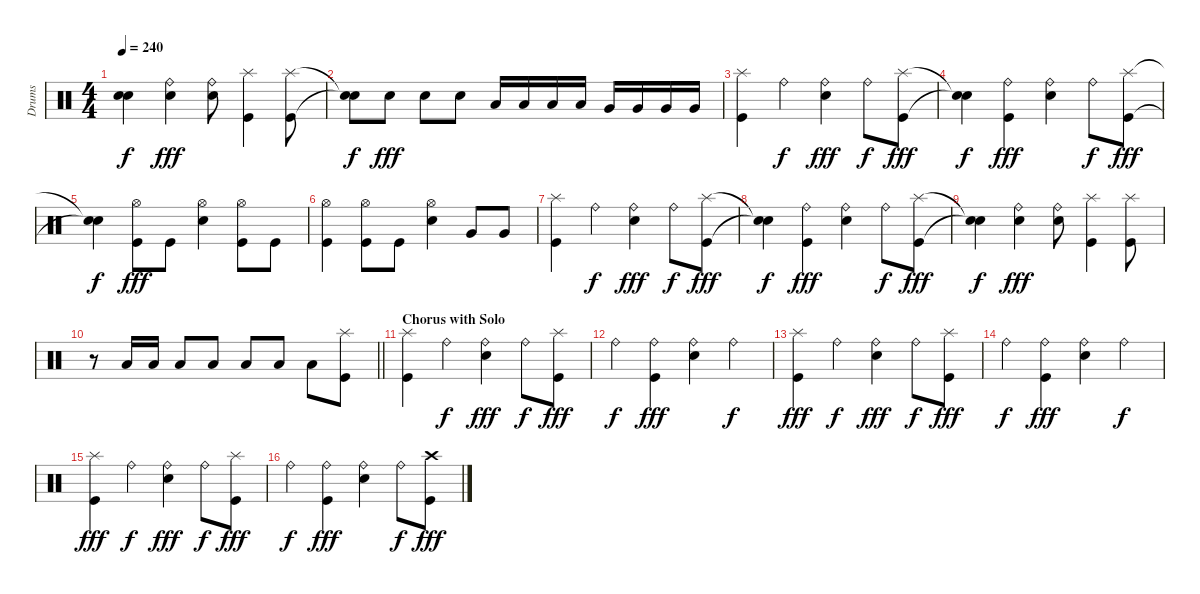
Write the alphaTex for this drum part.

\track ("Drums" "Drums") {instrument percussion}
\staff {score}
\articulation defaults
\ts (4 4)
\tempo 240
\clef neutral
\ks c
("Snare (hit)"{t} "Snare (hit)"{t}).4{dy f} ("Electric Snare (hit)" "Ride (bell)").4{dy fff} ("Electric Snare (hit)" "Ride (bell)").8 ("Kick (hit)" "Splash (hit)").4 ("Kick (hit)" "Splash (hit)").8 |
("Snare (hit)"{t} "Snare (hit)"{t}).8{dy f} "Electric Snare (hit)".8{dy fff} "Electric Snare (hit)".8 "Electric Snare (hit)".8 "Low Tom (hit)".16 "Low Tom (hit)".16 "Low Tom (hit)".16 "Low Tom (hit)".16 "Very Low Tom (hit)".16 "Very Low Tom (hit)".16 "Very Low Tom (hit)".16 "Very Low Tom (hit)".16 |
("Kick (hit)" "Splash (hit)").4 "Ride (bell)".4{dy f} ("Electric Snare (hit)" "Ride (bell)").4{dy fff} "Ride (bell)".8{dy f} ("Kick (hit)" "Splash (hit)").8{dy fff} |
("Snare (hit)"{t} "Snare (hit)"{t}).4{dy f} ("Kick (hit)" "Ride (bell)").4{dy fff} ("Electric Snare (hit)" "Ride (bell)").4 "Ride (bell)".8{dy f} ("Kick (hit)" "Splash (hit)").8{dy fff} |
("Snare (hit)"{t} "Snare (hit)"{t}).4{dy f} ("Kick (hit)" "Hi-Hat (open)").8{dy fff} "Kick (hit)".8 ("Electric Snare (hit)" "Hi-Hat (open)").4 ("Kick (hit)" "Hi-Hat (open)").8 "Kick (hit)".8 |
("Kick (hit)" "Hi-Hat (open)").4 ("Kick (hit)" "Hi-Hat (open)").8 "Kick (hit)".8 ("Electric Snare (hit)" "Hi-Hat (open)").4 "Very Low Tom (hit)".8 "Very Low Tom (hit)".8 |
("Kick (hit)" "Splash (hit)").4 "Ride (bell)".4{dy f} ("Electric Snare (hit)" "Ride (bell)").4{dy fff} "Ride (bell)".8{dy f} ("Kick (hit)" "Splash (hit)").8{dy fff} |
("Snare (hit)"{t} "Snare (hit)"{t}).4{dy f} ("Kick (hit)" "Ride (bell)").4{dy fff} ("Electric Snare (hit)" "Ride (bell)").4 "Ride (bell)".8{dy f} ("Kick (hit)" "Splash (hit)").8{dy fff} |
("Snare (hit)"{t} "Snare (hit)"{t}).4{dy f} ("Electric Snare (hit)" "Ride (bell)").4{dy fff} ("Electric Snare (hit)" "Ride (bell)").8 ("Kick (hit)" "Splash (hit)").4 ("Kick (hit)" "Splash (hit)").8 |
\barLineRight lightlight
r.8 "Low Tom (hit)".16 "Low Tom (hit)".16 "Low Tom (hit)".8 "Low Tom (hit)".8 "Low Tom (hit)".8 "Low Floor Tom (hit)".8 "Low Floor Tom (hit)".8 ("Kick (hit)" "Splash (hit)").8 |
\section ("" "Chorus with Solo")
("Kick (hit)" "Splash (hit)").4 "Ride (bell)".4{dy f} ("Electric Snare (hit)" "Ride (bell)").4{dy fff} "Ride (bell)".8{dy f} ("Kick (hit)" "Splash (hit)").8{dy fff} |
"Ride (bell)".4{dy f} ("Kick (hit)" "Ride (bell)").4{dy fff} ("Electric Snare (hit)" "Ride (bell)").4 "Ride (bell)".4{dy f} |
("Kick (hit)" "Splash (hit)").4{dy fff} "Ride (bell)".4{dy f} ("Electric Snare (hit)" "Ride (bell)").4{dy fff} "Ride (bell)".8{dy f} ("Kick (hit)" "Splash (hit)").8{dy fff} |
"Ride (bell)".4{dy f} ("Kick (hit)" "Ride (bell)").4{dy fff} ("Electric Snare (hit)" "Ride (bell)").4 "Ride (bell)".4{dy f} |
("Kick (hit)" "Splash (hit)").4{dy fff} "Ride (bell)".4{dy f} ("Electric Snare (hit)" "Ride (bell)").4{dy fff} "Ride (bell)".8{dy f} ("Kick (hit)" "Splash (hit)").8{dy fff} |
"Ride (bell)".4{dy f} ("Kick (hit)" "Ride (bell)").4{dy fff} ("Electric Snare (hit)" "Ride (bell)").4 "Ride (bell)".8{dy f} ("Kick (hit)" "Crash high (hit)").8{dy fff}
